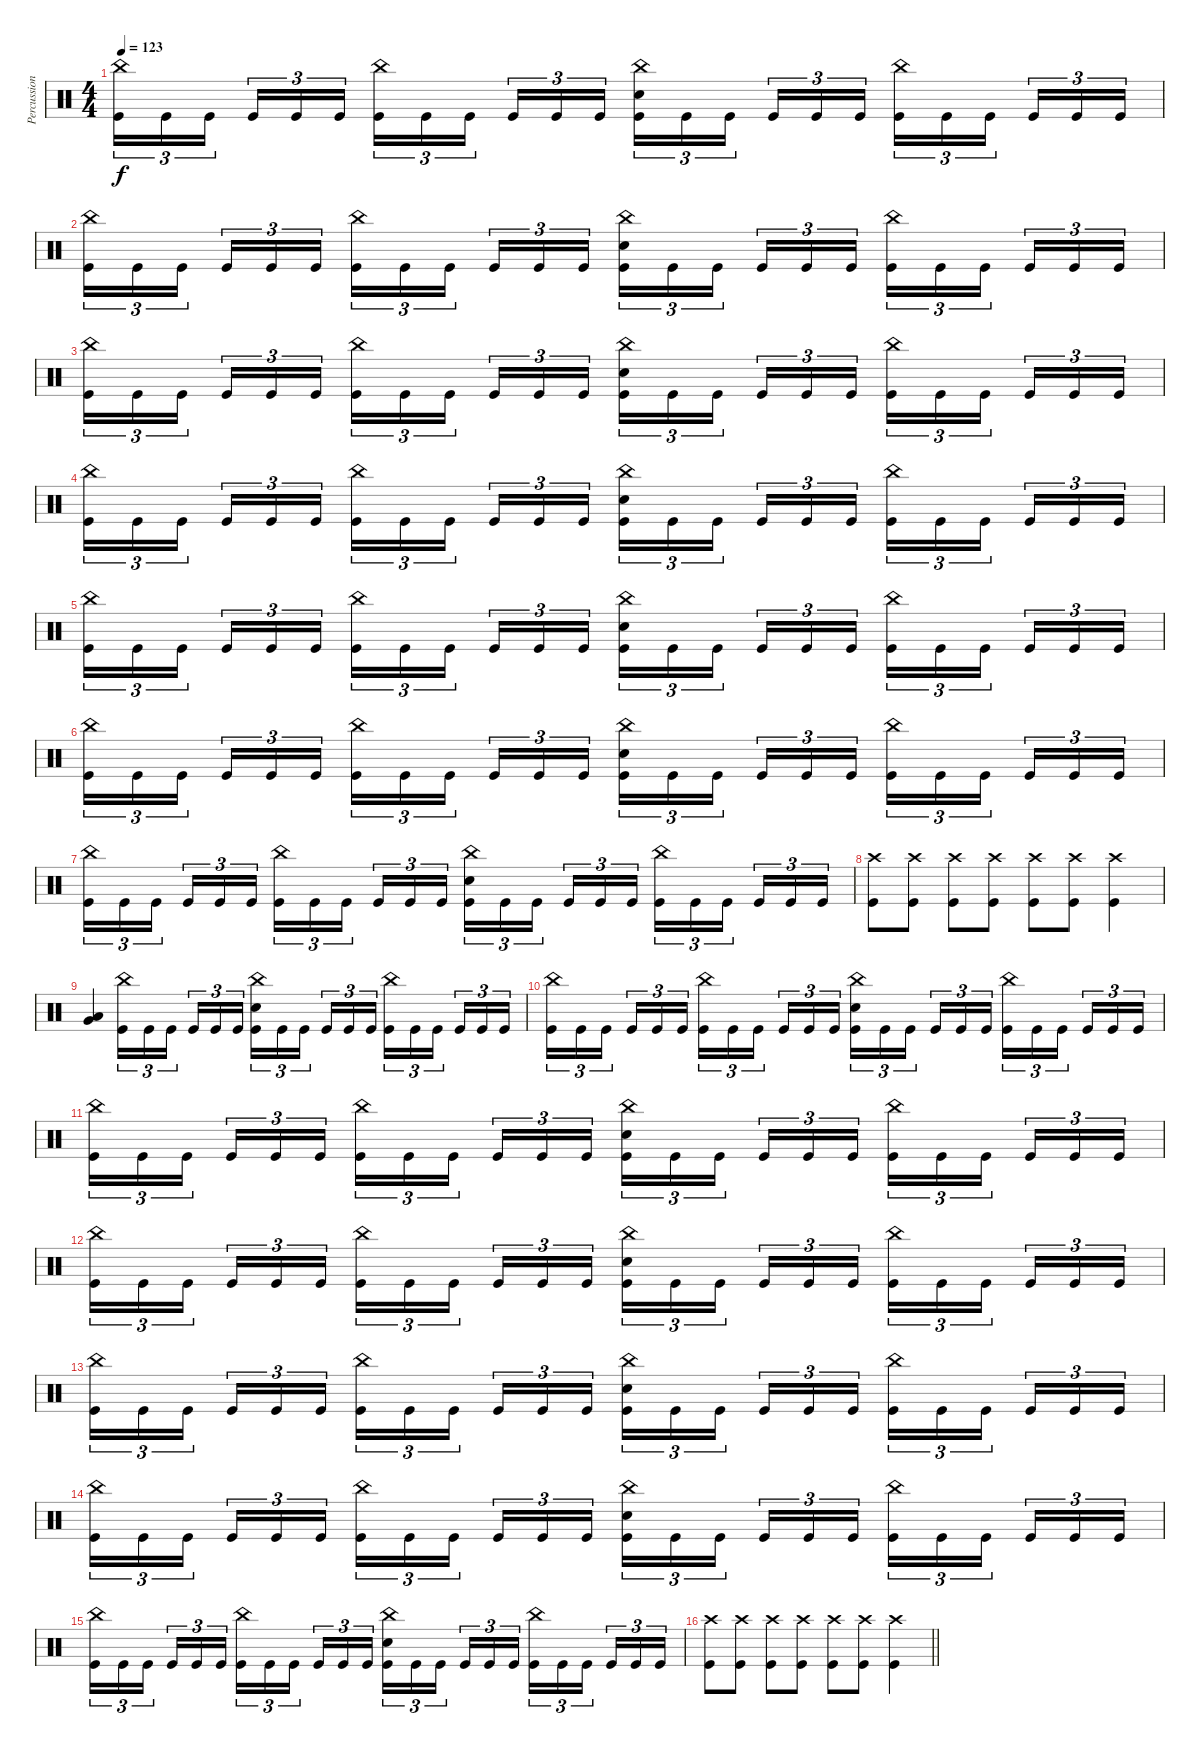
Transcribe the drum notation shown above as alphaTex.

\track ("Percussions" "Percussion") {instrument percussion}
\staff {score}
\articulation defaults
\ts (4 4)
\tempo 123
\clef neutral
\ks c
("China (hit)" "Kick (hit)").16{tu (3 2) dy f} "Kick (hit)".16{tu (3 2)} "Kick (hit)".16{tu (3 2) beam splitsecondary} "Kick (hit)".16{tu (3 2)} "Kick (hit)".16{tu (3 2)} "Kick (hit)".16{tu (3 2)} ("China (hit)" "Kick (hit)").16{tu (3 2)} "Kick (hit)".16{tu (3 2)} "Kick (hit)".16{tu (3 2) beam splitsecondary} "Kick (hit)".16{tu (3 2)} "Kick (hit)".16{tu (3 2)} "Kick (hit)".16{tu (3 2)} ("China (hit)" "Electric Snare (hit)" "Kick (hit)").16{tu (3 2)} "Kick (hit)".16{tu (3 2)} "Kick (hit)".16{tu (3 2) beam splitsecondary} "Kick (hit)".16{tu (3 2)} "Kick (hit)".16{tu (3 2)} "Kick (hit)".16{tu (3 2)} ("China (hit)" "Kick (hit)").16{tu (3 2)} "Kick (hit)".16{tu (3 2)} "Kick (hit)".16{tu (3 2) beam splitsecondary} "Kick (hit)".16{tu (3 2)} "Kick (hit)".16{tu (3 2)} "Kick (hit)".16{tu (3 2)} |
("China (hit)" "Kick (hit)").16{tu (3 2)} "Kick (hit)".16{tu (3 2)} "Kick (hit)".16{tu (3 2) beam splitsecondary} "Kick (hit)".16{tu (3 2)} "Kick (hit)".16{tu (3 2)} "Kick (hit)".16{tu (3 2)} ("China (hit)" "Kick (hit)").16{tu (3 2)} "Kick (hit)".16{tu (3 2)} "Kick (hit)".16{tu (3 2) beam splitsecondary} "Kick (hit)".16{tu (3 2)} "Kick (hit)".16{tu (3 2)} "Kick (hit)".16{tu (3 2)} ("China (hit)" "Electric Snare (hit)" "Kick (hit)").16{tu (3 2)} "Kick (hit)".16{tu (3 2)} "Kick (hit)".16{tu (3 2) beam splitsecondary} "Kick (hit)".16{tu (3 2)} "Kick (hit)".16{tu (3 2)} "Kick (hit)".16{tu (3 2)} ("China (hit)" "Kick (hit)").16{tu (3 2)} "Kick (hit)".16{tu (3 2)} "Kick (hit)".16{tu (3 2) beam splitsecondary} "Kick (hit)".16{tu (3 2)} "Kick (hit)".16{tu (3 2)} "Kick (hit)".16{tu (3 2)} |
("China (hit)" "Kick (hit)").16{tu (3 2)} "Kick (hit)".16{tu (3 2)} "Kick (hit)".16{tu (3 2) beam splitsecondary} "Kick (hit)".16{tu (3 2)} "Kick (hit)".16{tu (3 2)} "Kick (hit)".16{tu (3 2)} ("China (hit)" "Kick (hit)").16{tu (3 2)} "Kick (hit)".16{tu (3 2)} "Kick (hit)".16{tu (3 2) beam splitsecondary} "Kick (hit)".16{tu (3 2)} "Kick (hit)".16{tu (3 2)} "Kick (hit)".16{tu (3 2)} ("China (hit)" "Electric Snare (hit)" "Kick (hit)").16{tu (3 2)} "Kick (hit)".16{tu (3 2)} "Kick (hit)".16{tu (3 2) beam splitsecondary} "Kick (hit)".16{tu (3 2)} "Kick (hit)".16{tu (3 2)} "Kick (hit)".16{tu (3 2)} ("China (hit)" "Kick (hit)").16{tu (3 2)} "Kick (hit)".16{tu (3 2)} "Kick (hit)".16{tu (3 2) beam splitsecondary} "Kick (hit)".16{tu (3 2)} "Kick (hit)".16{tu (3 2)} "Kick (hit)".16{tu (3 2)} |
("China (hit)" "Kick (hit)").16{tu (3 2)} "Kick (hit)".16{tu (3 2)} "Kick (hit)".16{tu (3 2) beam splitsecondary} "Kick (hit)".16{tu (3 2)} "Kick (hit)".16{tu (3 2)} "Kick (hit)".16{tu (3 2)} ("China (hit)" "Kick (hit)").16{tu (3 2)} "Kick (hit)".16{tu (3 2)} "Kick (hit)".16{tu (3 2) beam splitsecondary} "Kick (hit)".16{tu (3 2)} "Kick (hit)".16{tu (3 2)} "Kick (hit)".16{tu (3 2)} ("China (hit)" "Electric Snare (hit)" "Kick (hit)").16{tu (3 2)} "Kick (hit)".16{tu (3 2)} "Kick (hit)".16{tu (3 2) beam splitsecondary} "Kick (hit)".16{tu (3 2)} "Kick (hit)".16{tu (3 2)} "Kick (hit)".16{tu (3 2)} ("China (hit)" "Kick (hit)").16{tu (3 2)} "Kick (hit)".16{tu (3 2)} "Kick (hit)".16{tu (3 2) beam splitsecondary} "Kick (hit)".16{tu (3 2)} "Kick (hit)".16{tu (3 2)} "Kick (hit)".16{tu (3 2)} |
("China (hit)" "Kick (hit)").16{tu (3 2)} "Kick (hit)".16{tu (3 2)} "Kick (hit)".16{tu (3 2) beam splitsecondary} "Kick (hit)".16{tu (3 2)} "Kick (hit)".16{tu (3 2)} "Kick (hit)".16{tu (3 2)} ("China (hit)" "Kick (hit)").16{tu (3 2)} "Kick (hit)".16{tu (3 2)} "Kick (hit)".16{tu (3 2) beam splitsecondary} "Kick (hit)".16{tu (3 2)} "Kick (hit)".16{tu (3 2)} "Kick (hit)".16{tu (3 2)} ("China (hit)" "Electric Snare (hit)" "Kick (hit)").16{tu (3 2)} "Kick (hit)".16{tu (3 2)} "Kick (hit)".16{tu (3 2) beam splitsecondary} "Kick (hit)".16{tu (3 2)} "Kick (hit)".16{tu (3 2)} "Kick (hit)".16{tu (3 2)} ("China (hit)" "Kick (hit)").16{tu (3 2)} "Kick (hit)".16{tu (3 2)} "Kick (hit)".16{tu (3 2) beam splitsecondary} "Kick (hit)".16{tu (3 2)} "Kick (hit)".16{tu (3 2)} "Kick (hit)".16{tu (3 2)} |
("China (hit)" "Kick (hit)").16{tu (3 2)} "Kick (hit)".16{tu (3 2)} "Kick (hit)".16{tu (3 2) beam splitsecondary} "Kick (hit)".16{tu (3 2)} "Kick (hit)".16{tu (3 2)} "Kick (hit)".16{tu (3 2)} ("China (hit)" "Kick (hit)").16{tu (3 2)} "Kick (hit)".16{tu (3 2)} "Kick (hit)".16{tu (3 2) beam splitsecondary} "Kick (hit)".16{tu (3 2)} "Kick (hit)".16{tu (3 2)} "Kick (hit)".16{tu (3 2)} ("China (hit)" "Electric Snare (hit)" "Kick (hit)").16{tu (3 2)} "Kick (hit)".16{tu (3 2)} "Kick (hit)".16{tu (3 2) beam splitsecondary} "Kick (hit)".16{tu (3 2)} "Kick (hit)".16{tu (3 2)} "Kick (hit)".16{tu (3 2)} ("China (hit)" "Kick (hit)").16{tu (3 2)} "Kick (hit)".16{tu (3 2)} "Kick (hit)".16{tu (3 2) beam splitsecondary} "Kick (hit)".16{tu (3 2)} "Kick (hit)".16{tu (3 2)} "Kick (hit)".16{tu (3 2)} |
("China (hit)" "Kick (hit)").16{tu (3 2)} "Kick (hit)".16{tu (3 2)} "Kick (hit)".16{tu (3 2) beam splitsecondary} "Kick (hit)".16{tu (3 2)} "Kick (hit)".16{tu (3 2)} "Kick (hit)".16{tu (3 2)} ("China (hit)" "Kick (hit)").16{tu (3 2)} "Kick (hit)".16{tu (3 2)} "Kick (hit)".16{tu (3 2) beam splitsecondary} "Kick (hit)".16{tu (3 2)} "Kick (hit)".16{tu (3 2)} "Kick (hit)".16{tu (3 2)} ("China (hit)" "Electric Snare (hit)" "Kick (hit)").16{tu (3 2)} "Kick (hit)".16{tu (3 2)} "Kick (hit)".16{tu (3 2) beam splitsecondary} "Kick (hit)".16{tu (3 2)} "Kick (hit)".16{tu (3 2)} "Kick (hit)".16{tu (3 2)} ("China (hit)" "Kick (hit)").16{tu (3 2)} "Kick (hit)".16{tu (3 2)} "Kick (hit)".16{tu (3 2) beam splitsecondary} "Kick (hit)".16{tu (3 2)} "Kick (hit)".16{tu (3 2)} "Kick (hit)".16{tu (3 2)} |
("Crash high (hit)" "Kick (hit)").8 ("Crash high (hit)" "Kick (hit)").8 ("Crash high (hit)" "Kick (hit)").8 ("Crash high (hit)" "Kick (hit)").8 ("Crash high (hit)" "Kick (hit)").8 ("Crash high (hit)" "Kick (hit)").8 ("Crash high (hit)" "Kick (hit)").4 |
("Low Floor Tom (hit)" "Very Low Tom (hit)").4 ("China (hit)" "Kick (hit)").16{tu (3 2)} "Kick (hit)".16{tu (3 2)} "Kick (hit)".16{tu (3 2) beam splitsecondary} "Kick (hit)".16{tu (3 2)} "Kick (hit)".16{tu (3 2)} "Kick (hit)".16{tu (3 2)} ("China (hit)" "Electric Snare (hit)" "Kick (hit)").16{tu (3 2)} "Kick (hit)".16{tu (3 2)} "Kick (hit)".16{tu (3 2) beam splitsecondary} "Kick (hit)".16{tu (3 2)} "Kick (hit)".16{tu (3 2)} "Kick (hit)".16{tu (3 2)} ("China (hit)" "Kick (hit)").16{tu (3 2)} "Kick (hit)".16{tu (3 2)} "Kick (hit)".16{tu (3 2) beam splitsecondary} "Kick (hit)".16{tu (3 2)} "Kick (hit)".16{tu (3 2)} "Kick (hit)".16{tu (3 2)} |
("China (hit)" "Kick (hit)").16{tu (3 2)} "Kick (hit)".16{tu (3 2)} "Kick (hit)".16{tu (3 2) beam splitsecondary} "Kick (hit)".16{tu (3 2)} "Kick (hit)".16{tu (3 2)} "Kick (hit)".16{tu (3 2)} ("China (hit)" "Kick (hit)").16{tu (3 2)} "Kick (hit)".16{tu (3 2)} "Kick (hit)".16{tu (3 2) beam splitsecondary} "Kick (hit)".16{tu (3 2)} "Kick (hit)".16{tu (3 2)} "Kick (hit)".16{tu (3 2)} ("China (hit)" "Electric Snare (hit)" "Kick (hit)").16{tu (3 2)} "Kick (hit)".16{tu (3 2)} "Kick (hit)".16{tu (3 2) beam splitsecondary} "Kick (hit)".16{tu (3 2)} "Kick (hit)".16{tu (3 2)} "Kick (hit)".16{tu (3 2)} ("China (hit)" "Kick (hit)").16{tu (3 2)} "Kick (hit)".16{tu (3 2)} "Kick (hit)".16{tu (3 2) beam splitsecondary} "Kick (hit)".16{tu (3 2)} "Kick (hit)".16{tu (3 2)} "Kick (hit)".16{tu (3 2)} |
("China (hit)" "Kick (hit)").16{tu (3 2)} "Kick (hit)".16{tu (3 2)} "Kick (hit)".16{tu (3 2) beam splitsecondary} "Kick (hit)".16{tu (3 2)} "Kick (hit)".16{tu (3 2)} "Kick (hit)".16{tu (3 2)} ("China (hit)" "Kick (hit)").16{tu (3 2)} "Kick (hit)".16{tu (3 2)} "Kick (hit)".16{tu (3 2) beam splitsecondary} "Kick (hit)".16{tu (3 2)} "Kick (hit)".16{tu (3 2)} "Kick (hit)".16{tu (3 2)} ("China (hit)" "Electric Snare (hit)" "Kick (hit)").16{tu (3 2)} "Kick (hit)".16{tu (3 2)} "Kick (hit)".16{tu (3 2) beam splitsecondary} "Kick (hit)".16{tu (3 2)} "Kick (hit)".16{tu (3 2)} "Kick (hit)".16{tu (3 2)} ("China (hit)" "Kick (hit)").16{tu (3 2)} "Kick (hit)".16{tu (3 2)} "Kick (hit)".16{tu (3 2) beam splitsecondary} "Kick (hit)".16{tu (3 2)} "Kick (hit)".16{tu (3 2)} "Kick (hit)".16{tu (3 2)} |
("China (hit)" "Kick (hit)").16{tu (3 2)} "Kick (hit)".16{tu (3 2)} "Kick (hit)".16{tu (3 2) beam splitsecondary} "Kick (hit)".16{tu (3 2)} "Kick (hit)".16{tu (3 2)} "Kick (hit)".16{tu (3 2)} ("China (hit)" "Kick (hit)").16{tu (3 2)} "Kick (hit)".16{tu (3 2)} "Kick (hit)".16{tu (3 2) beam splitsecondary} "Kick (hit)".16{tu (3 2)} "Kick (hit)".16{tu (3 2)} "Kick (hit)".16{tu (3 2)} ("China (hit)" "Electric Snare (hit)" "Kick (hit)").16{tu (3 2)} "Kick (hit)".16{tu (3 2)} "Kick (hit)".16{tu (3 2) beam splitsecondary} "Kick (hit)".16{tu (3 2)} "Kick (hit)".16{tu (3 2)} "Kick (hit)".16{tu (3 2)} ("China (hit)" "Kick (hit)").16{tu (3 2)} "Kick (hit)".16{tu (3 2)} "Kick (hit)".16{tu (3 2) beam splitsecondary} "Kick (hit)".16{tu (3 2)} "Kick (hit)".16{tu (3 2)} "Kick (hit)".16{tu (3 2)} |
("China (hit)" "Kick (hit)").16{tu (3 2)} "Kick (hit)".16{tu (3 2)} "Kick (hit)".16{tu (3 2) beam splitsecondary} "Kick (hit)".16{tu (3 2)} "Kick (hit)".16{tu (3 2)} "Kick (hit)".16{tu (3 2)} ("China (hit)" "Kick (hit)").16{tu (3 2)} "Kick (hit)".16{tu (3 2)} "Kick (hit)".16{tu (3 2) beam splitsecondary} "Kick (hit)".16{tu (3 2)} "Kick (hit)".16{tu (3 2)} "Kick (hit)".16{tu (3 2)} ("China (hit)" "Electric Snare (hit)" "Kick (hit)").16{tu (3 2)} "Kick (hit)".16{tu (3 2)} "Kick (hit)".16{tu (3 2) beam splitsecondary} "Kick (hit)".16{tu (3 2)} "Kick (hit)".16{tu (3 2)} "Kick (hit)".16{tu (3 2)} ("China (hit)" "Kick (hit)").16{tu (3 2)} "Kick (hit)".16{tu (3 2)} "Kick (hit)".16{tu (3 2) beam splitsecondary} "Kick (hit)".16{tu (3 2)} "Kick (hit)".16{tu (3 2)} "Kick (hit)".16{tu (3 2)} |
("China (hit)" "Kick (hit)").16{tu (3 2)} "Kick (hit)".16{tu (3 2)} "Kick (hit)".16{tu (3 2) beam splitsecondary} "Kick (hit)".16{tu (3 2)} "Kick (hit)".16{tu (3 2)} "Kick (hit)".16{tu (3 2)} ("China (hit)" "Kick (hit)").16{tu (3 2)} "Kick (hit)".16{tu (3 2)} "Kick (hit)".16{tu (3 2) beam splitsecondary} "Kick (hit)".16{tu (3 2)} "Kick (hit)".16{tu (3 2)} "Kick (hit)".16{tu (3 2)} ("China (hit)" "Electric Snare (hit)" "Kick (hit)").16{tu (3 2)} "Kick (hit)".16{tu (3 2)} "Kick (hit)".16{tu (3 2) beam splitsecondary} "Kick (hit)".16{tu (3 2)} "Kick (hit)".16{tu (3 2)} "Kick (hit)".16{tu (3 2)} ("China (hit)" "Kick (hit)").16{tu (3 2)} "Kick (hit)".16{tu (3 2)} "Kick (hit)".16{tu (3 2) beam splitsecondary} "Kick (hit)".16{tu (3 2)} "Kick (hit)".16{tu (3 2)} "Kick (hit)".16{tu (3 2)} |
("China (hit)" "Kick (hit)").16{tu (3 2)} "Kick (hit)".16{tu (3 2)} "Kick (hit)".16{tu (3 2) beam splitsecondary} "Kick (hit)".16{tu (3 2)} "Kick (hit)".16{tu (3 2)} "Kick (hit)".16{tu (3 2)} ("China (hit)" "Kick (hit)").16{tu (3 2)} "Kick (hit)".16{tu (3 2)} "Kick (hit)".16{tu (3 2) beam splitsecondary} "Kick (hit)".16{tu (3 2)} "Kick (hit)".16{tu (3 2)} "Kick (hit)".16{tu (3 2)} ("China (hit)" "Electric Snare (hit)" "Kick (hit)").16{tu (3 2)} "Kick (hit)".16{tu (3 2)} "Kick (hit)".16{tu (3 2) beam splitsecondary} "Kick (hit)".16{tu (3 2)} "Kick (hit)".16{tu (3 2)} "Kick (hit)".16{tu (3 2)} ("China (hit)" "Kick (hit)").16{tu (3 2)} "Kick (hit)".16{tu (3 2)} "Kick (hit)".16{tu (3 2) beam splitsecondary} "Kick (hit)".16{tu (3 2)} "Kick (hit)".16{tu (3 2)} "Kick (hit)".16{tu (3 2)} |
\barLineRight lightlight
("Crash high (hit)" "Kick (hit)").8 ("Crash high (hit)" "Kick (hit)").8 ("Crash high (hit)" "Kick (hit)").8 ("Crash high (hit)" "Kick (hit)").8 ("Crash high (hit)" "Kick (hit)").8 ("Crash high (hit)" "Kick (hit)").8 ("Crash high (hit)" "Kick (hit)").4
